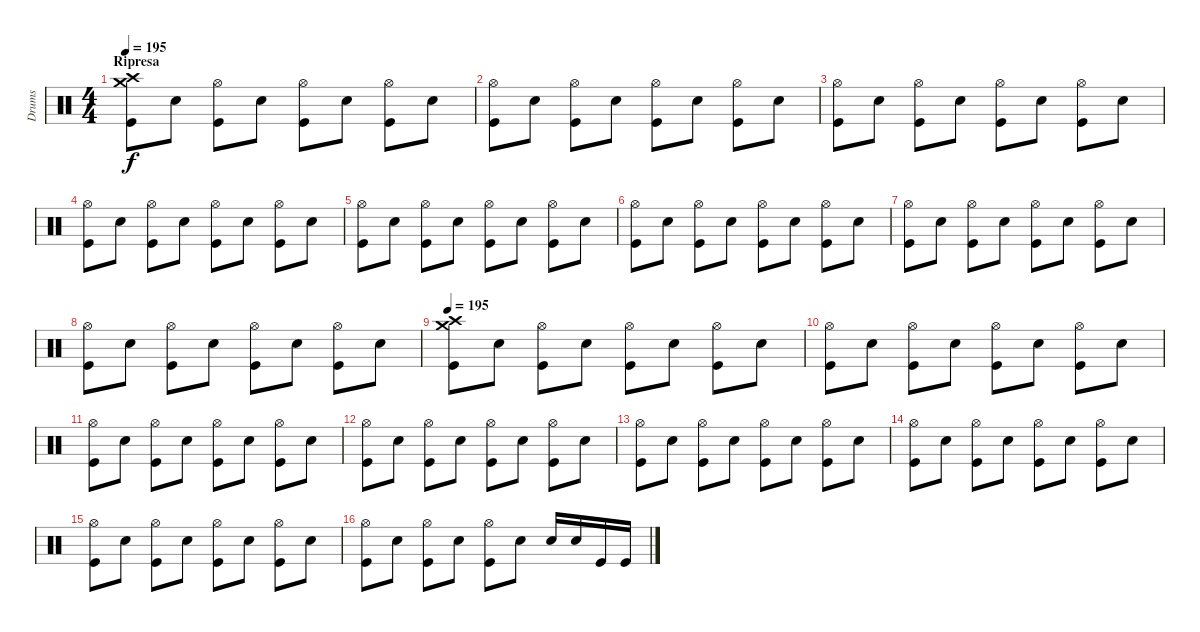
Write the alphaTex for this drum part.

\track ("Drums" "Drums") {instrument percussion}
\staff {score}
\articulation defaults
\ts (4 4)
\section ("" "Ripresa")
\tempo 195
\clef neutral
\ks c
("Crash high (hit)" "Crash medium (hit)" "Kick (hit)").8{dy f} "Electric Snare (hit)".8 ("Hi-Hat (open)" "Kick (hit)").8 "Electric Snare (hit)".8 ("Hi-Hat (open)" "Kick (hit)").8 "Electric Snare (hit)".8 ("Hi-Hat (open)" "Kick (hit)").8 "Electric Snare (hit)".8 |
("Hi-Hat (open)" "Kick (hit)").8 "Electric Snare (hit)".8 ("Hi-Hat (open)" "Kick (hit)").8 "Electric Snare (hit)".8 ("Hi-Hat (open)" "Kick (hit)").8 "Electric Snare (hit)".8 ("Hi-Hat (open)" "Kick (hit)").8 "Electric Snare (hit)".8 |
("Hi-Hat (open)" "Kick (hit)").8 "Electric Snare (hit)".8 ("Hi-Hat (open)" "Kick (hit)").8 "Electric Snare (hit)".8 ("Hi-Hat (open)" "Kick (hit)").8 "Electric Snare (hit)".8 ("Hi-Hat (open)" "Kick (hit)").8 "Electric Snare (hit)".8 |
("Hi-Hat (open)" "Kick (hit)").8 "Electric Snare (hit)".8 ("Hi-Hat (open)" "Kick (hit)").8 "Electric Snare (hit)".8 ("Hi-Hat (open)" "Kick (hit)").8 "Electric Snare (hit)".8 ("Hi-Hat (open)" "Kick (hit)").8 "Electric Snare (hit)".8 |
("Hi-Hat (open)" "Kick (hit)").8 "Electric Snare (hit)".8 ("Hi-Hat (open)" "Kick (hit)").8 "Electric Snare (hit)".8 ("Hi-Hat (open)" "Kick (hit)").8 "Electric Snare (hit)".8 ("Hi-Hat (open)" "Kick (hit)").8 "Electric Snare (hit)".8 |
("Hi-Hat (open)" "Kick (hit)").8 "Electric Snare (hit)".8 ("Hi-Hat (open)" "Kick (hit)").8 "Electric Snare (hit)".8 ("Hi-Hat (open)" "Kick (hit)").8 "Electric Snare (hit)".8 ("Hi-Hat (open)" "Kick (hit)").8 "Electric Snare (hit)".8 |
("Hi-Hat (open)" "Kick (hit)").8 "Electric Snare (hit)".8 ("Hi-Hat (open)" "Kick (hit)").8 "Electric Snare (hit)".8 ("Hi-Hat (open)" "Kick (hit)").8 "Electric Snare (hit)".8 ("Hi-Hat (open)" "Kick (hit)").8 "Electric Snare (hit)".8 |
("Hi-Hat (open)" "Kick (hit)").8 "Electric Snare (hit)".8 ("Hi-Hat (open)" "Kick (hit)").8 "Electric Snare (hit)".8 ("Hi-Hat (open)" "Kick (hit)").8 "Electric Snare (hit)".8 ("Hi-Hat (open)" "Kick (hit)").8 "Electric Snare (hit)".8 |
\tempo 195
("Crash high (hit)" "Crash medium (hit)" "Kick (hit)").8 "Electric Snare (hit)".8 ("Hi-Hat (open)" "Kick (hit)").8 "Electric Snare (hit)".8 ("Hi-Hat (open)" "Kick (hit)").8 "Electric Snare (hit)".8 ("Hi-Hat (open)" "Kick (hit)").8 "Electric Snare (hit)".8 |
("Hi-Hat (open)" "Kick (hit)").8 "Electric Snare (hit)".8 ("Hi-Hat (open)" "Kick (hit)").8 "Electric Snare (hit)".8 ("Hi-Hat (open)" "Kick (hit)").8 "Electric Snare (hit)".8 ("Hi-Hat (open)" "Kick (hit)").8 "Electric Snare (hit)".8 |
("Hi-Hat (open)" "Kick (hit)").8 "Electric Snare (hit)".8 ("Hi-Hat (open)" "Kick (hit)").8 "Electric Snare (hit)".8 ("Hi-Hat (open)" "Kick (hit)").8 "Electric Snare (hit)".8 ("Hi-Hat (open)" "Kick (hit)").8 "Electric Snare (hit)".8 |
("Hi-Hat (open)" "Kick (hit)").8 "Electric Snare (hit)".8 ("Hi-Hat (open)" "Kick (hit)").8 "Electric Snare (hit)".8 ("Hi-Hat (open)" "Kick (hit)").8 "Electric Snare (hit)".8 ("Hi-Hat (open)" "Kick (hit)").8 "Electric Snare (hit)".8 |
("Hi-Hat (open)" "Kick (hit)").8 "Electric Snare (hit)".8 ("Hi-Hat (open)" "Kick (hit)").8 "Electric Snare (hit)".8 ("Hi-Hat (open)" "Kick (hit)").8 "Electric Snare (hit)".8 ("Hi-Hat (open)" "Kick (hit)").8 "Electric Snare (hit)".8 |
("Hi-Hat (open)" "Kick (hit)").8 "Electric Snare (hit)".8 ("Hi-Hat (open)" "Kick (hit)").8 "Electric Snare (hit)".8 ("Hi-Hat (open)" "Kick (hit)").8 "Electric Snare (hit)".8 ("Hi-Hat (open)" "Kick (hit)").8 "Electric Snare (hit)".8 |
("Hi-Hat (open)" "Kick (hit)").8 "Electric Snare (hit)".8 ("Hi-Hat (open)" "Kick (hit)").8 "Electric Snare (hit)".8 ("Hi-Hat (open)" "Kick (hit)").8 "Electric Snare (hit)".8 ("Hi-Hat (open)" "Kick (hit)").8 "Electric Snare (hit)".8 |
("Hi-Hat (open)" "Kick (hit)").8 "Electric Snare (hit)".8 ("Hi-Hat (open)" "Kick (hit)").8 "Electric Snare (hit)".8 ("Hi-Hat (open)" "Kick (hit)").8 "Electric Snare (hit)".8 "Electric Snare (hit)".16 "Electric Snare (hit)".16 "Kick (hit)".16 "Kick (hit)".16
